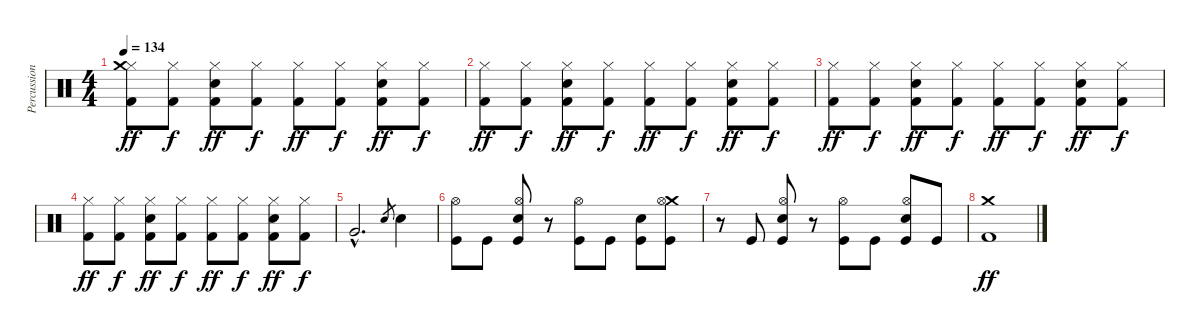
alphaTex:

\track ("Percussion" "Percussion") {instrument percussion}
\staff {score}
\articulation defaults
\ts (4 4)
\tempo 134
\clef neutral
\ks c
("Kick (hit) 2" "Hi-Hat (closed)" "Crash medium (hit)").8{dy ff} ("Kick (hit) 2" "Hi-Hat (closed)").8{dy f} ("Kick (hit) 2" "Hi-Hat (closed)" "Electric Snare (hit)").8{dy ff} ("Kick (hit) 2" "Hi-Hat (closed)").8{dy f} ("Kick (hit) 2" "Hi-Hat (closed)").8{dy ff} ("Kick (hit) 2" "Hi-Hat (closed)").8{dy f} ("Kick (hit) 2" "Hi-Hat (closed)" "Electric Snare (hit)").8{dy ff} ("Kick (hit) 2" "Hi-Hat (closed)").8{dy f} |
("Kick (hit) 2" "Hi-Hat (closed)").8{dy ff} ("Kick (hit) 2" "Hi-Hat (closed)").8{dy f} ("Kick (hit) 2" "Hi-Hat (closed)" "Electric Snare (hit)").8{dy ff} ("Kick (hit) 2" "Hi-Hat (closed)").8{dy f} ("Kick (hit) 2" "Hi-Hat (closed)").8{dy ff} ("Kick (hit) 2" "Hi-Hat (closed)").8{dy f} ("Kick (hit) 2" "Hi-Hat (closed)" "Electric Snare (hit)").8{dy ff} ("Kick (hit) 2" "Hi-Hat (closed)").8{dy f} |
("Kick (hit) 2" "Hi-Hat (closed)").8{dy ff} ("Kick (hit) 2" "Hi-Hat (closed)").8{dy f} ("Kick (hit) 2" "Hi-Hat (closed)" "Electric Snare (hit)").8{dy ff} ("Kick (hit) 2" "Hi-Hat (closed)").8{dy f} ("Kick (hit) 2" "Hi-Hat (closed)").8{dy ff} ("Kick (hit) 2" "Hi-Hat (closed)").8{dy f} ("Kick (hit) 2" "Hi-Hat (closed)" "Electric Snare (hit)").8{dy ff} ("Kick (hit) 2" "Hi-Hat (closed)").8{dy f} |
("Kick (hit) 2" "Hi-Hat (closed)").8{dy ff} ("Kick (hit) 2" "Hi-Hat (closed)").8{dy f} ("Kick (hit) 2" "Hi-Hat (closed)" "Electric Snare (hit)").8{dy ff} ("Kick (hit) 2" "Hi-Hat (closed)").8{dy f} ("Kick (hit) 2" "Hi-Hat (closed)").8{dy ff} ("Kick (hit) 2" "Hi-Hat (closed)").8{dy f} ("Kick (hit) 2" "Hi-Hat (closed)" "Electric Snare (hit)").8{dy ff} ("Kick (hit) 2" "Hi-Hat (closed)").8{dy f} |
"Very Low Tom (hit)"{hac}.2{d} "Electric Snare (hit)".8{gr} "Electric Snare (hit)".4 |
("Hi-Hat (open)" "Kick (hit)").8 "Kick (hit)".8 ("Electric Snare (hit)" "Hi-Hat (open)" "Kick (hit)").8 r.8 ("Hi-Hat (open)" "Kick (hit)").8 "Kick (hit)".8 ("Electric Snare (hit)" "Kick (hit)").8 ("Crash medium (hit)" "Hi-Hat (open)" "Kick (hit)").8 |
r.8 "Kick (hit)".8 ("Electric Snare (hit)" "Hi-Hat (open)" "Kick (hit)").8 r.8 ("Hi-Hat (open)" "Kick (hit)").8 "Kick (hit)".8 ("Electric Snare (hit)" "Hi-Hat (open)" "Kick (hit)").8 "Kick (hit)".8 |
("Kick (hit) 2" "Crash medium (hit)").1{dy ff}
